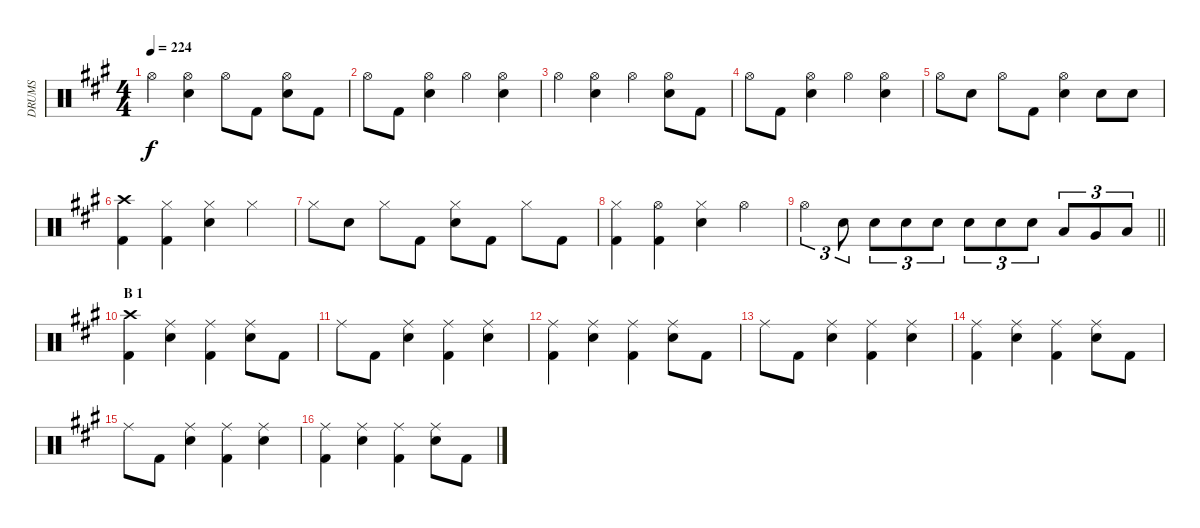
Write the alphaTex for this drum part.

\track ("DRUMS" "DRUMS") {instrument percussion}
\staff {score}
\articulation defaults
\ts (4 4)
\tempo 224
\clef neutral
\ks a "Hi-Hat (open)".4{dy f}
("Hi-Hat (open)" "Snare (hit) 2").4 "Hi-Hat (open)".8 "Kick (hit) 2".8 ("Hi-Hat (open)" "Snare (hit) 2").8 "Kick (hit) 2".8 |
"Hi-Hat (open)".8 "Kick (hit) 2".8 ("Hi-Hat (open)" "Snare (hit) 2").4 "Hi-Hat (open)".4 ("Hi-Hat (open)" "Snare (hit) 2").4 |
"Hi-Hat (open)".4 ("Hi-Hat (open)" "Snare (hit) 2").4 "Hi-Hat (open)".4 ("Hi-Hat (open)" "Snare (hit) 2").8 "Kick (hit) 2".8 |
"Hi-Hat (open)".8 "Kick (hit) 2".8 ("Hi-Hat (open)" "Snare (hit) 2").4 "Hi-Hat (open)".4 ("Hi-Hat (open)" "Snare (hit) 2").4 |
"Hi-Hat (open)".8 "Snare (hit) 2".8 "Hi-Hat (open)".8 "Kick (hit) 2".8 ("Hi-Hat (open)" "Snare (hit) 2").4 "Snare (hit) 2".8 "Snare (hit) 2".8 |
("Crash high (hit)" "Kick (hit) 2").4 ("Hi-Hat (closed)" "Kick (hit) 2").4 ("Hi-Hat (closed)" "Snare (hit) 2").4 "Hi-Hat (closed)".4 |
"Hi-Hat (closed)".8 "Snare (hit) 2".8 "Hi-Hat (closed)".8 "Kick (hit) 2".8 ("Hi-Hat (closed)" "Snare (hit) 2").8 "Kick (hit) 2".8 "Hi-Hat (closed)".8 "Kick (hit) 2".8 |
("Hi-Hat (closed)" "Kick (hit) 2").4 ("Hi-Hat (open)" "Kick (hit) 2").4 ("Hi-Hat (closed)" "Snare (hit) 2").4 "Hi-Hat (open)".4 |
\barLineRight lightlight "Hi-Hat (open)".4{tu (3 2)} "Snare (hit) 2".8{tu (3 2)} "Snare (hit) 2".8{tu (3 2)} "Snare (hit) 2".8{tu (3 2)} "Snare (hit) 2".8{tu (3 2)} "Snare (hit) 2".8{tu (3 2)} "Snare (hit) 2".8{tu (3 2)} "Snare (hit) 2".8{tu (3 2)} "Low Tom (hit)".8{tu (3 2)} "Very Low Tom (hit)".8{tu (3 2)} "Low Floor Tom (hit)".8{tu (3 2)}
|
\section ("" "B 1")
("Crash high (hit)" "Kick (hit) 2").4 ("Ride (middle)" "Snare (hit) 2").4 ("Ride (middle)" "Kick (hit) 2").4 ("Ride (middle)" "Snare (hit) 2").8 "Kick (hit) 2".8 |
"Ride (middle)".8 "Kick (hit) 2".8 ("Ride (middle)" "Snare (hit) 2").4 ("Ride (middle)" "Kick (hit) 2").4 ("Ride (middle)" "Snare (hit) 2").4 |
("Ride (middle)" "Kick (hit) 2").4 ("Ride (middle)" "Snare (hit) 2").4 ("Ride (middle)" "Kick (hit) 2").4 ("Ride (middle)" "Snare (hit) 2").8 "Kick (hit) 2".8 |
"Ride (middle)".8 "Kick (hit) 2".8 ("Ride (middle)" "Snare (hit) 2").4 ("Ride (middle)" "Kick (hit) 2").4 ("Ride (middle)" "Snare (hit) 2").4 |
("Ride (middle)" "Kick (hit) 2").4 ("Ride (middle)" "Snare (hit) 2").4 ("Ride (middle)" "Kick (hit) 2").4 ("Ride (middle)" "Snare (hit) 2").8 "Kick (hit) 2".8 |
"Ride (middle)".8 "Kick (hit) 2".8 ("Ride (middle)" "Snare (hit) 2").4 ("Ride (middle)" "Kick (hit) 2").4 ("Ride (middle)" "Snare (hit) 2").4 |
("Ride (middle)" "Kick (hit) 2").4 ("Ride (middle)" "Snare (hit) 2").4 ("Ride (middle)" "Kick (hit) 2").4 ("Ride (middle)" "Snare (hit) 2").8 "Kick (hit) 2".8
